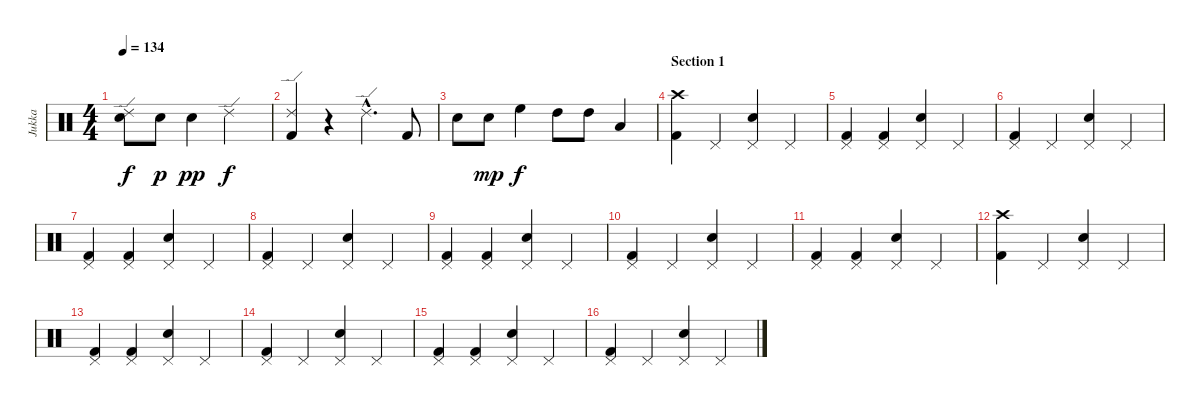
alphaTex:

\track ("Jukka" "Jukka") {instrument percussion}
\staff {score}
\articulation defaults
\ts (4 4)
\tempo 134
\clef neutral
\ks c
("Ride (edge) 2" "Electric Snare (hit)").8{dy f} "Electric Snare (hit)".8{dy p} "Electric Snare (hit)".4{dy pp} "Ride (edge) 2".2{dy f} |
("Ride (edge) 2" "Kick (hit) 2").4 r.4 "Ride (edge) 2"{hac}.4{d} "Kick (hit) 2".8 |
"Electric Snare (hit)".8 "Electric Snare (hit)".8{dy mp} "High Floor Tom (hit)".4{dy f} "High Tom (hit)".8 "High Tom (hit)".8 "Low Tom (hit)".4 |
\section ("" "Section 1")
("Crash high (hit)" "Kick (hit) 2").4 "Pedal Hi-Hat (hit)".4 ("Pedal Hi-Hat (hit)" "Electric Snare (hit)").4 "Pedal Hi-Hat (hit)".4 |
("Pedal Hi-Hat (hit)" "Kick (hit) 2").4 ("Pedal Hi-Hat (hit)" "Kick (hit) 2").4 ("Pedal Hi-Hat (hit)" "Electric Snare (hit)").4 "Pedal Hi-Hat (hit)".4 |
("Pedal Hi-Hat (hit)" "Kick (hit) 2").4 "Pedal Hi-Hat (hit)".4 ("Pedal Hi-Hat (hit)" "Electric Snare (hit)").4 "Pedal Hi-Hat (hit)".4 |
("Pedal Hi-Hat (hit)" "Kick (hit) 2").4 ("Pedal Hi-Hat (hit)" "Kick (hit) 2").4 ("Pedal Hi-Hat (hit)" "Electric Snare (hit)").4 "Pedal Hi-Hat (hit)".4 |
("Pedal Hi-Hat (hit)" "Kick (hit) 2").4 "Pedal Hi-Hat (hit)".4 ("Pedal Hi-Hat (hit)" "Electric Snare (hit)").4 "Pedal Hi-Hat (hit)".4 |
("Pedal Hi-Hat (hit)" "Kick (hit) 2").4 ("Pedal Hi-Hat (hit)" "Kick (hit) 2").4 ("Pedal Hi-Hat (hit)" "Electric Snare (hit)").4 "Pedal Hi-Hat (hit)".4 |
("Pedal Hi-Hat (hit)" "Kick (hit) 2").4 "Pedal Hi-Hat (hit)".4 ("Pedal Hi-Hat (hit)" "Electric Snare (hit)").4 "Pedal Hi-Hat (hit)".4 |
("Pedal Hi-Hat (hit)" "Kick (hit) 2").4 ("Pedal Hi-Hat (hit)" "Kick (hit) 2").4 ("Pedal Hi-Hat (hit)" "Electric Snare (hit)").4 "Pedal Hi-Hat (hit)".4 |
("Crash high (hit)" "Kick (hit) 2").4 "Pedal Hi-Hat (hit)".4 ("Pedal Hi-Hat (hit)" "Electric Snare (hit)").4 "Pedal Hi-Hat (hit)".4 |
("Pedal Hi-Hat (hit)" "Kick (hit) 2").4 ("Pedal Hi-Hat (hit)" "Kick (hit) 2").4 ("Pedal Hi-Hat (hit)" "Electric Snare (hit)").4 "Pedal Hi-Hat (hit)".4 |
("Pedal Hi-Hat (hit)" "Kick (hit) 2").4 "Pedal Hi-Hat (hit)".4 ("Pedal Hi-Hat (hit)" "Electric Snare (hit)").4 "Pedal Hi-Hat (hit)".4 |
("Pedal Hi-Hat (hit)" "Kick (hit) 2").4 ("Pedal Hi-Hat (hit)" "Kick (hit) 2").4 ("Pedal Hi-Hat (hit)" "Electric Snare (hit)").4 "Pedal Hi-Hat (hit)".4 |
("Pedal Hi-Hat (hit)" "Kick (hit) 2").4 "Pedal Hi-Hat (hit)".4 ("Pedal Hi-Hat (hit)" "Electric Snare (hit)").4 "Pedal Hi-Hat (hit)".4
